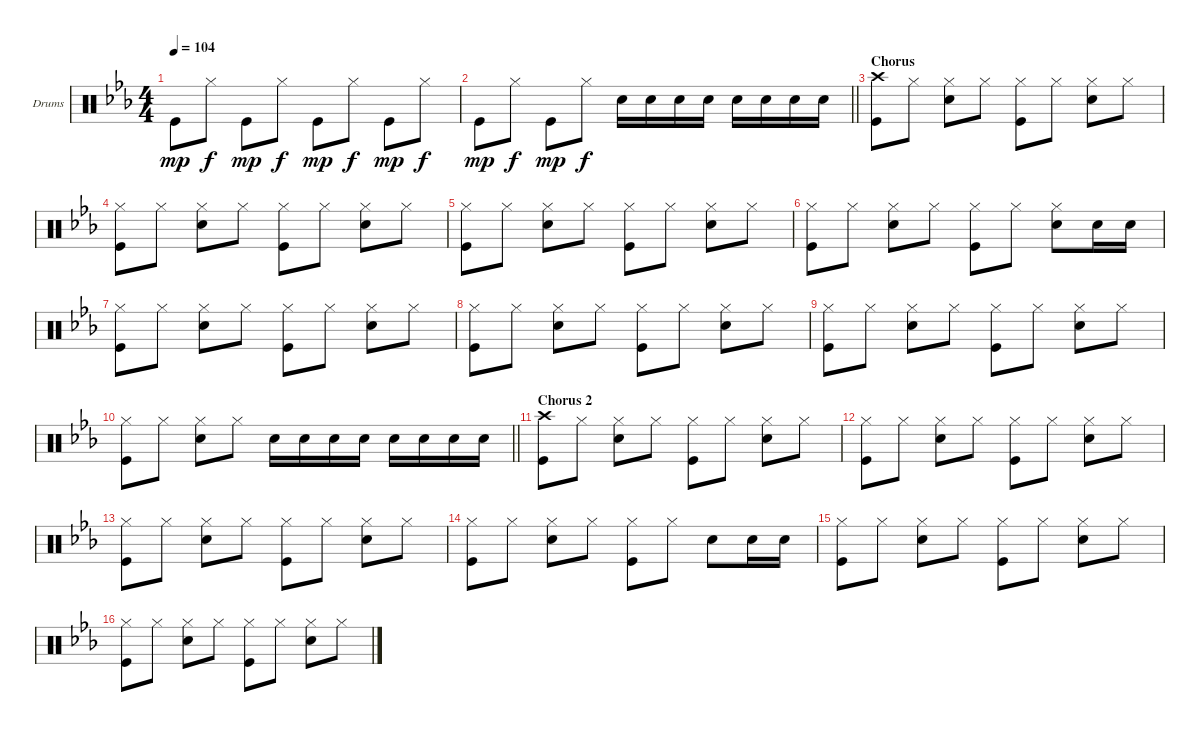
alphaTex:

\bracketExtendMode groupsimilarinstruments
\firstSystemTrackNameOrientation horizontal
\otherSystemsTrackNameOrientation horizontal
\track ("Drumkit" "Drums") {instrument percussion}
\staff {score}
\articulation defaults
\ts (4 4)
\tempo 104
\clef neutral
\ks eb "Kick (hit)".8{dy mp} "Hi-Hat (closed)".8{dy f} "Kick (hit)".8{dy mp} "Hi-Hat (closed)".8{dy f} "Kick (hit)".8{dy mp} "Hi-Hat (closed)".8{dy f} "Kick (hit)".8{dy mp} "Hi-Hat (closed)".8{dy f}
|
\barLineRight lightlight "Kick (hit)".8{dy mp} "Hi-Hat (closed)".8{dy f} "Kick (hit)".8{dy mp} "Hi-Hat (closed)".8{dy f} "Snare (hit) 2".16 "Snare (hit) 2".16 "Snare (hit) 2".16 "Snare (hit) 2".16 "Snare (hit) 2".16 "Snare (hit) 2".16 "Snare (hit) 2".16 "Snare (hit) 2".16
|
\section ("" "Chorus")
("Crash high (hit)" "Kick (hit)").8 "Hi-Hat (closed)".8 ("Hi-Hat (closed)" "Snare (hit) 2").8 "Hi-Hat (closed)".8 ("Hi-Hat (closed)" "Kick (hit)").8 "Hi-Hat (closed)".8 ("Hi-Hat (closed)" "Snare (hit) 2").8 "Hi-Hat (closed)".8 |
("Hi-Hat (closed)" "Kick (hit)").8 "Hi-Hat (closed)".8 ("Hi-Hat (closed)" "Snare (hit) 2").8 "Hi-Hat (closed)".8 ("Hi-Hat (closed)" "Kick (hit)").8 "Hi-Hat (closed)".8 ("Hi-Hat (closed)" "Snare (hit) 2").8 "Hi-Hat (closed)".8 |
("Hi-Hat (closed)" "Kick (hit)").8 "Hi-Hat (closed)".8 ("Hi-Hat (closed)" "Snare (hit) 2").8 "Hi-Hat (closed)".8 ("Hi-Hat (closed)" "Kick (hit)").8 "Hi-Hat (closed)".8 ("Hi-Hat (closed)" "Snare (hit) 2").8 "Hi-Hat (closed)".8 |
("Hi-Hat (closed)" "Kick (hit)").8 "Hi-Hat (closed)".8 ("Hi-Hat (closed)" "Snare (hit) 2").8 "Hi-Hat (closed)".8 ("Hi-Hat (closed)" "Kick (hit)").8 "Hi-Hat (closed)".8 ("Hi-Hat (closed)" "Snare (hit) 2").8 "Snare (hit) 2".16 "Snare (hit) 2".16 |
("Hi-Hat (closed)" "Kick (hit)").8 "Hi-Hat (closed)".8 ("Hi-Hat (closed)" "Snare (hit) 2").8 "Hi-Hat (closed)".8 ("Hi-Hat (closed)" "Kick (hit)").8 "Hi-Hat (closed)".8 ("Hi-Hat (closed)" "Snare (hit) 2").8 "Hi-Hat (closed)".8 |
("Hi-Hat (closed)" "Kick (hit)").8 "Hi-Hat (closed)".8 ("Hi-Hat (closed)" "Snare (hit) 2").8 "Hi-Hat (closed)".8 ("Hi-Hat (closed)" "Kick (hit)").8 "Hi-Hat (closed)".8 ("Hi-Hat (closed)" "Snare (hit) 2").8 "Hi-Hat (closed)".8 |
("Hi-Hat (closed)" "Kick (hit)").8 "Hi-Hat (closed)".8 ("Hi-Hat (closed)" "Snare (hit) 2").8 "Hi-Hat (closed)".8 ("Hi-Hat (closed)" "Kick (hit)").8 "Hi-Hat (closed)".8 ("Hi-Hat (closed)" "Snare (hit) 2").8 "Hi-Hat (closed)".8 |
\barLineRight lightlight
("Hi-Hat (closed)" "Kick (hit)").8 "Hi-Hat (closed)".8 ("Hi-Hat (closed)" "Snare (hit) 2").8 "Hi-Hat (closed)".8 "Snare (hit) 2".16 "Snare (hit) 2".16 "Snare (hit) 2".16 "Snare (hit) 2".16 "Snare (hit) 2".16 "Snare (hit) 2".16 "Snare (hit) 2".16 "Snare (hit) 2".16 |
\section ("" "Chorus 2")
("Crash high (hit)" "Kick (hit)").8 "Hi-Hat (closed)".8 ("Hi-Hat (closed)" "Snare (hit) 2").8 "Hi-Hat (closed)".8 ("Hi-Hat (closed)" "Kick (hit)").8 "Hi-Hat (closed)".8 ("Hi-Hat (closed)" "Snare (hit) 2").8 "Hi-Hat (closed)".8 |
("Hi-Hat (closed)" "Kick (hit)").8 "Hi-Hat (closed)".8 ("Hi-Hat (closed)" "Snare (hit) 2").8 "Hi-Hat (closed)".8 ("Hi-Hat (closed)" "Kick (hit)").8 "Hi-Hat (closed)".8 ("Hi-Hat (closed)" "Snare (hit) 2").8 "Hi-Hat (closed)".8 |
("Hi-Hat (closed)" "Kick (hit)").8 "Hi-Hat (closed)".8 ("Hi-Hat (closed)" "Snare (hit) 2").8 "Hi-Hat (closed)".8 ("Hi-Hat (closed)" "Kick (hit)").8 "Hi-Hat (closed)".8 ("Hi-Hat (closed)" "Snare (hit) 2").8 "Hi-Hat (closed)".8 |
("Hi-Hat (closed)" "Kick (hit)").8 "Hi-Hat (closed)".8 ("Hi-Hat (closed)" "Snare (hit) 2").8 "Hi-Hat (closed)".8 ("Hi-Hat (closed)" "Kick (hit)").8 "Hi-Hat (closed)".8 "Snare (hit) 2".8 "Snare (hit) 2".16 "Snare (hit) 2".16 |
("Hi-Hat (closed)" "Kick (hit)").8 "Hi-Hat (closed)".8 ("Hi-Hat (closed)" "Snare (hit) 2").8 "Hi-Hat (closed)".8 ("Hi-Hat (closed)" "Kick (hit)").8 "Hi-Hat (closed)".8 ("Hi-Hat (closed)" "Snare (hit) 2").8 "Hi-Hat (closed)".8 |
("Hi-Hat (closed)" "Kick (hit)").8 "Hi-Hat (closed)".8 ("Hi-Hat (closed)" "Snare (hit) 2").8 "Hi-Hat (closed)".8 ("Hi-Hat (closed)" "Kick (hit)").8 "Hi-Hat (closed)".8 ("Hi-Hat (closed)" "Snare (hit) 2").8 "Hi-Hat (closed)".8
